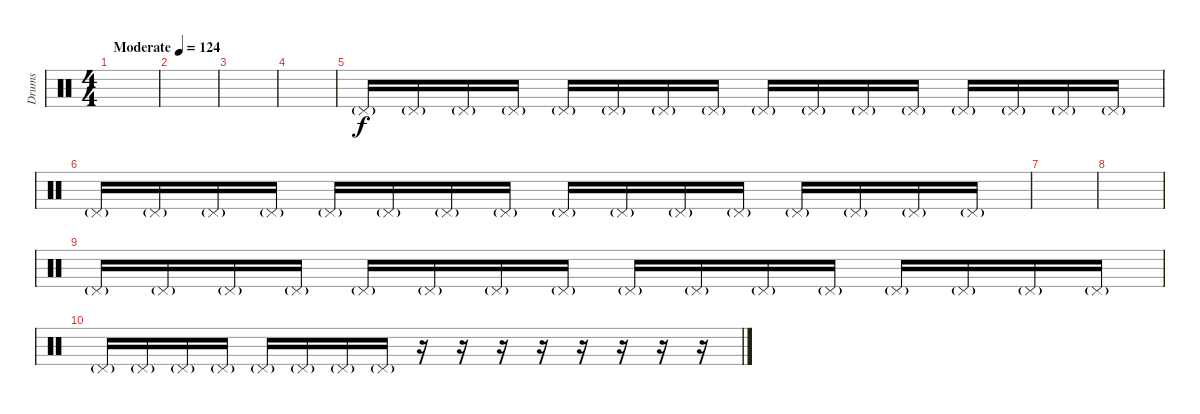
\track ("Drums" "Drums") {instrument percussion}
\staff {score}
\articulation defaults
\ts (4 4)
\tempo (124 "Moderate")
\clef neutral
\ks c
|
|
|
|
"Pedal Hi-Hat (hit)"{g}.16 "Pedal Hi-Hat (hit)"{g}.16 "Pedal Hi-Hat (hit)"{g}.16 "Pedal Hi-Hat (hit)"{g}.16 "Pedal Hi-Hat (hit)"{g}.16 "Pedal Hi-Hat (hit)"{g}.16 "Pedal Hi-Hat (hit)"{g}.16 "Pedal Hi-Hat (hit)"{g}.16 "Pedal Hi-Hat (hit)"{g}.16 "Pedal Hi-Hat (hit)"{g}.16 "Pedal Hi-Hat (hit)"{g}.16 "Pedal Hi-Hat (hit)"{g}.16 "Pedal Hi-Hat (hit)"{g}.16 "Pedal Hi-Hat (hit)"{g}.16 "Pedal Hi-Hat (hit)"{g}.16 "Pedal Hi-Hat (hit)"{g}.16 |
"Pedal Hi-Hat (hit)"{g}.16 "Pedal Hi-Hat (hit)"{g}.16 "Pedal Hi-Hat (hit)"{g}.16 "Pedal Hi-Hat (hit)"{g}.16 "Pedal Hi-Hat (hit)"{g}.16 "Pedal Hi-Hat (hit)"{g}.16 "Pedal Hi-Hat (hit)"{g}.16 "Pedal Hi-Hat (hit)"{g}.16 "Pedal Hi-Hat (hit)"{g}.16 "Pedal Hi-Hat (hit)"{g}.16 "Pedal Hi-Hat (hit)"{g}.16 "Pedal Hi-Hat (hit)"{g}.16 "Pedal Hi-Hat (hit)"{g}.16 "Pedal Hi-Hat (hit)"{g}.16 "Pedal Hi-Hat (hit)"{g}.16 "Pedal Hi-Hat (hit)"{g}.16 |
|
|
"Pedal Hi-Hat (hit)"{g}.16 "Pedal Hi-Hat (hit)"{g}.16 "Pedal Hi-Hat (hit)"{g}.16 "Pedal Hi-Hat (hit)"{g}.16 "Pedal Hi-Hat (hit)"{g}.16 "Pedal Hi-Hat (hit)"{g}.16 "Pedal Hi-Hat (hit)"{g}.16 "Pedal Hi-Hat (hit)"{g}.16 "Pedal Hi-Hat (hit)"{g}.16 "Pedal Hi-Hat (hit)"{g}.16 "Pedal Hi-Hat (hit)"{g}.16 "Pedal Hi-Hat (hit)"{g}.16 "Pedal Hi-Hat (hit)"{g}.16 "Pedal Hi-Hat (hit)"{g}.16 "Pedal Hi-Hat (hit)"{g}.16 "Pedal Hi-Hat (hit)"{g}.16 |
"Pedal Hi-Hat (hit)"{g}.16 "Pedal Hi-Hat (hit)"{g}.16 "Pedal Hi-Hat (hit)"{g}.16 "Pedal Hi-Hat (hit)"{g}.16 "Pedal Hi-Hat (hit)"{g}.16 "Pedal Hi-Hat (hit)"{g}.16 "Pedal Hi-Hat (hit)"{g}.16 "Pedal Hi-Hat (hit)"{g}.16 r.16 r.16 r.16 r.16 r.16 r.16 r.16 r.16
